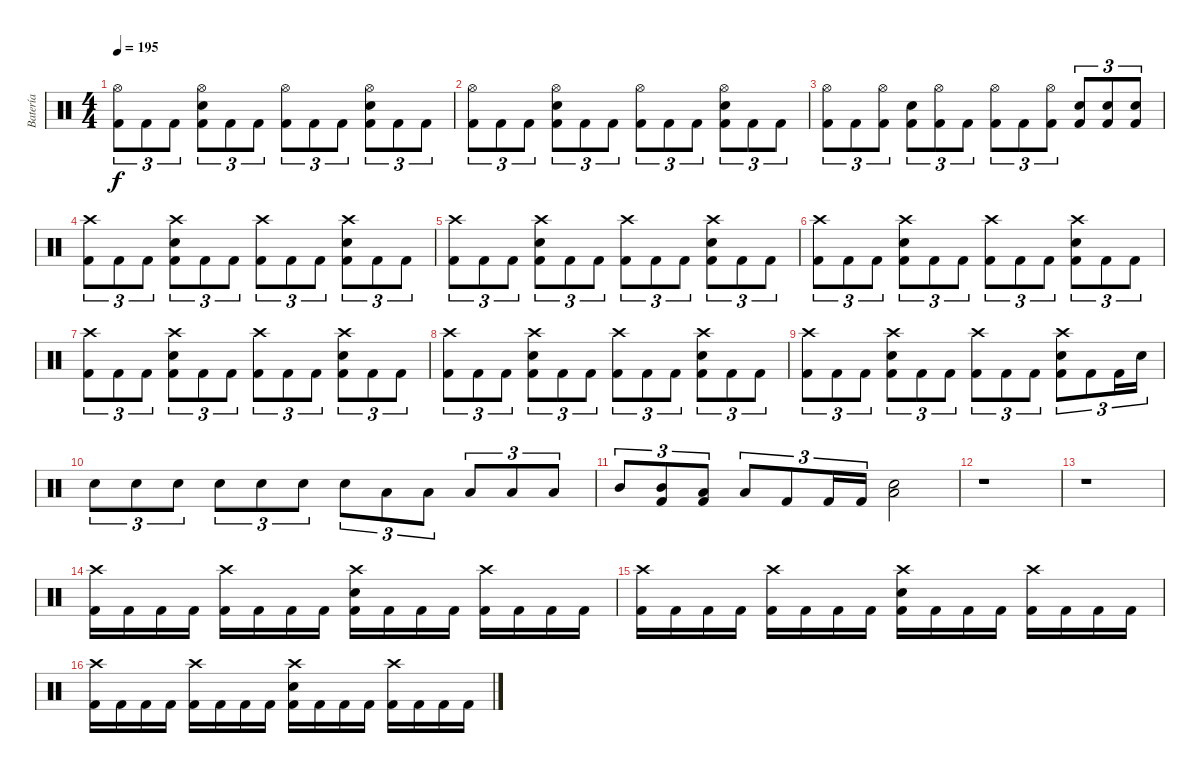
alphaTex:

\track ("Batería" "Batería") {instrument percussion}
\staff {score}
\articulation defaults
\ts (4 4)
\tempo 195
\clef neutral
\ks c
("Hi-Hat (open)" "Kick (hit) 2").8{tu (3 2) dy f} "Kick (hit) 2".8{tu (3 2)} "Kick (hit) 2".8{tu (3 2)} ("Hi-Hat (open)" "Snare (hit) 2" "Kick (hit) 2").8{tu (3 2)} "Kick (hit) 2".8{tu (3 2)} "Kick (hit) 2".8{tu (3 2)} ("Hi-Hat (open)" "Kick (hit) 2").8{tu (3 2)} "Kick (hit) 2".8{tu (3 2)} "Kick (hit) 2".8{tu (3 2)} ("Hi-Hat (open)" "Snare (hit) 2" "Kick (hit) 2").8{tu (3 2)} "Kick (hit) 2".8{tu (3 2)} "Kick (hit) 2".8{tu (3 2)} |
("Hi-Hat (open)" "Kick (hit) 2").8{tu (3 2)} "Kick (hit) 2".8{tu (3 2)} "Kick (hit) 2".8{tu (3 2)} ("Hi-Hat (open)" "Snare (hit) 2" "Kick (hit) 2").8{tu (3 2)} "Kick (hit) 2".8{tu (3 2)} "Kick (hit) 2".8{tu (3 2)} ("Hi-Hat (open)" "Kick (hit) 2").8{tu (3 2)} "Kick (hit) 2".8{tu (3 2)} "Kick (hit) 2".8{tu (3 2)} ("Hi-Hat (open)" "Snare (hit) 2" "Kick (hit) 2").8{tu (3 2)} "Kick (hit) 2".8{tu (3 2)} "Kick (hit) 2".8{tu (3 2)} |
("Hi-Hat (open)" "Kick (hit) 2").8{tu (3 2)} "Kick (hit) 2".8{tu (3 2)} ("Hi-Hat (open)" "Kick (hit) 2").8{tu (3 2)} ("Snare (hit) 2" "Kick (hit) 2").8{tu (3 2)} ("Hi-Hat (open)" "Kick (hit) 2").8{tu (3 2)} "Kick (hit) 2".8{tu (3 2)} ("Hi-Hat (open)" "Kick (hit) 2").8{tu (3 2)} "Kick (hit) 2".8{tu (3 2)} ("Hi-Hat (open)" "Kick (hit) 2").8{tu (3 2)} ("Snare (hit) 2" "Kick (hit) 2").8{tu (3 2)} ("Snare (hit) 2" "Kick (hit) 2").8{tu (3 2)} ("Snare (hit) 2" "Kick (hit) 2").8{tu (3 2)} |
("Crash high (hit)" "Kick (hit) 2").8{tu (3 2)} "Kick (hit) 2".8{tu (3 2)} "Kick (hit) 2".8{tu (3 2)} ("Crash high (hit)" "Snare (hit) 2" "Kick (hit) 2").8{tu (3 2)} "Kick (hit) 2".8{tu (3 2)} "Kick (hit) 2".8{tu (3 2)} ("Crash high (hit)" "Kick (hit) 2").8{tu (3 2)} "Kick (hit) 2".8{tu (3 2)} "Kick (hit) 2".8{tu (3 2)} ("Crash high (hit)" "Snare (hit) 2" "Kick (hit) 2").8{tu (3 2)} "Kick (hit) 2".8{tu (3 2)} "Kick (hit) 2".8{tu (3 2)} |
("Crash high (hit)" "Kick (hit) 2").8{tu (3 2)} "Kick (hit) 2".8{tu (3 2)} "Kick (hit) 2".8{tu (3 2)} ("Crash high (hit)" "Snare (hit) 2" "Kick (hit) 2").8{tu (3 2)} "Kick (hit) 2".8{tu (3 2)} "Kick (hit) 2".8{tu (3 2)} ("Crash high (hit)" "Kick (hit) 2").8{tu (3 2)} "Kick (hit) 2".8{tu (3 2)} "Kick (hit) 2".8{tu (3 2)} ("Crash high (hit)" "Snare (hit) 2" "Kick (hit) 2").8{tu (3 2)} "Kick (hit) 2".8{tu (3 2)} "Kick (hit) 2".8{tu (3 2)} |
("Crash high (hit)" "Kick (hit) 2").8{tu (3 2)} "Kick (hit) 2".8{tu (3 2)} "Kick (hit) 2".8{tu (3 2)} ("Crash high (hit)" "Snare (hit) 2" "Kick (hit) 2").8{tu (3 2)} "Kick (hit) 2".8{tu (3 2)} "Kick (hit) 2".8{tu (3 2)} ("Crash high (hit)" "Kick (hit) 2").8{tu (3 2)} "Kick (hit) 2".8{tu (3 2)} "Kick (hit) 2".8{tu (3 2)} ("Crash high (hit)" "Snare (hit) 2" "Kick (hit) 2").8{tu (3 2)} "Kick (hit) 2".8{tu (3 2)} "Kick (hit) 2".8{tu (3 2)} |
("Crash high (hit)" "Kick (hit) 2").8{tu (3 2)} "Kick (hit) 2".8{tu (3 2)} "Kick (hit) 2".8{tu (3 2)} ("Crash high (hit)" "Snare (hit) 2" "Kick (hit) 2").8{tu (3 2)} "Kick (hit) 2".8{tu (3 2)} "Kick (hit) 2".8{tu (3 2)} ("Crash high (hit)" "Kick (hit) 2").8{tu (3 2)} "Kick (hit) 2".8{tu (3 2)} "Kick (hit) 2".8{tu (3 2)} ("Crash high (hit)" "Snare (hit) 2" "Kick (hit) 2").8{tu (3 2)} "Kick (hit) 2".8{tu (3 2)} "Kick (hit) 2".8{tu (3 2)} |
("Crash high (hit)" "Kick (hit) 2").8{tu (3 2)} "Kick (hit) 2".8{tu (3 2)} "Kick (hit) 2".8{tu (3 2)} ("Crash high (hit)" "Snare (hit) 2" "Kick (hit) 2").8{tu (3 2)} "Kick (hit) 2".8{tu (3 2)} "Kick (hit) 2".8{tu (3 2)} ("Crash high (hit)" "Kick (hit) 2").8{tu (3 2)} "Kick (hit) 2".8{tu (3 2)} "Kick (hit) 2".8{tu (3 2)} ("Crash high (hit)" "Snare (hit) 2" "Kick (hit) 2").8{tu (3 2)} "Kick (hit) 2".8{tu (3 2)} "Kick (hit) 2".8{tu (3 2)} |
("Crash high (hit)" "Kick (hit) 2").8{tu (3 2)} "Kick (hit) 2".8{tu (3 2)} "Kick (hit) 2".8{tu (3 2)} ("Crash high (hit)" "Snare (hit) 2" "Kick (hit) 2").8{tu (3 2)} "Kick (hit) 2".8{tu (3 2)} "Kick (hit) 2".8{tu (3 2)} ("Crash high (hit)" "Kick (hit) 2").8{tu (3 2)} "Kick (hit) 2".8{tu (3 2)} "Kick (hit) 2".8{tu (3 2)} ("Crash high (hit)" "Snare (hit) 2" "Kick (hit) 2").8{tu (3 2)} "Kick (hit) 2".8{tu (3 2)} "Kick (hit) 2".16{tu (3 2)} "Snare (hit) 2".16{tu (3 2)} |
"Snare (hit) 2".8{tu (3 2)} "Snare (hit) 2".8{tu (3 2)} "Snare (hit) 2".8{tu (3 2)} "Snare (hit) 2".8{tu (3 2)} "Snare (hit) 2".8{tu (3 2)} "Snare (hit) 2".8{tu (3 2)} "Snare (hit) 2".8{tu (3 2)} "Low Tom (hit)".8{tu (3 2)} "Low Tom (hit)".8{tu (3 2)} "Low Tom (hit)".8{tu (3 2)} "Low Tom (hit)".8{tu (3 2)} "Low Tom (hit)".8{tu (3 2)} |
"Mid Tom (hit)".8{tu (3 2)} ("Mid Tom (hit)" "Kick (hit) 2").8{tu (3 2)} ("Low Tom (hit)" "Kick (hit) 2").8{tu (3 2)} "Low Floor Tom (hit)".8{tu (3 2)} "Kick (hit) 2".8{tu (3 2)} "Kick (hit) 2".16{tu (3 2)} "Kick (hit) 2".16{tu (3 2)} ("Low Floor Tom (hit)" "Snare (hit) 2").2 |
r.1 |
r.1 |
("Crash high (hit)" "Kick (hit) 2").16 "Kick (hit) 2".16 "Kick (hit) 2".16 "Kick (hit) 2".16 ("Crash high (hit)" "Kick (hit) 2").16 "Kick (hit) 2".16 "Kick (hit) 2".16 "Kick (hit) 2".16 ("Crash high (hit)" "Snare (hit) 2" "Kick (hit) 2").16 "Kick (hit) 2".16 "Kick (hit) 2".16 "Kick (hit) 2".16 ("Crash high (hit)" "Kick (hit) 2").16 "Kick (hit) 2".16 "Kick (hit) 2".16 "Kick (hit) 2".16 |
("Crash high (hit)" "Kick (hit) 2").16 "Kick (hit) 2".16 "Kick (hit) 2".16 "Kick (hit) 2".16 ("Crash high (hit)" "Kick (hit) 2").16 "Kick (hit) 2".16 "Kick (hit) 2".16 "Kick (hit) 2".16 ("Crash high (hit)" "Snare (hit) 2" "Kick (hit) 2").16 "Kick (hit) 2".16 "Kick (hit) 2".16 "Kick (hit) 2".16 ("Crash high (hit)" "Kick (hit) 2").16 "Kick (hit) 2".16 "Kick (hit) 2".16 "Kick (hit) 2".16 |
("Crash high (hit)" "Kick (hit) 2").16 "Kick (hit) 2".16 "Kick (hit) 2".16 "Kick (hit) 2".16 ("Crash high (hit)" "Kick (hit) 2").16 "Kick (hit) 2".16 "Kick (hit) 2".16 "Kick (hit) 2".16 ("Crash high (hit)" "Snare (hit) 2" "Kick (hit) 2").16 "Kick (hit) 2".16 "Kick (hit) 2".16 "Kick (hit) 2".16 ("Crash high (hit)" "Kick (hit) 2").16 "Kick (hit) 2".16 "Kick (hit) 2".16 "Kick (hit) 2".16
